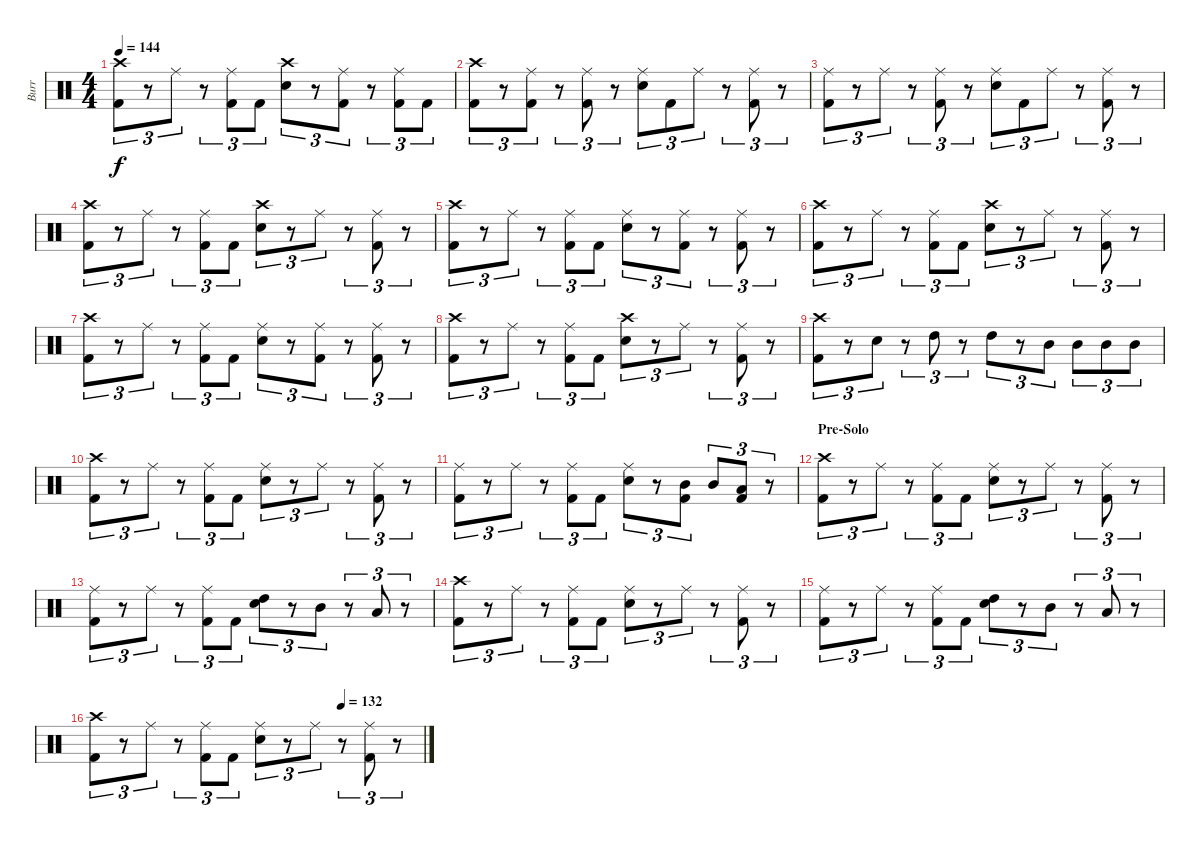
\track ("Burr" "Burr") {instrument percussion}
\staff {score}
\articulation defaults
\ts (4 4)
\tempo 144
\clef neutral
\ks c
("Crash high (hit)" "Kick (hit) 2").8{tu (3 2) dy f} r.8{tu (3 2)} "Ride (middle)".8{tu (3 2)} r.8{tu (3 2)} ("Ride (middle)" "Kick (hit) 2").8{tu (3 2)} "Kick (hit) 2".8{tu (3 2)} ("Crash high (hit)" "Snare (hit) 2").8{tu (3 2)} r.8{tu (3 2)} ("Ride (middle)" "Kick (hit) 2").8{tu (3 2)} r.8{tu (3 2)} ("Ride (middle)" "Kick (hit) 2").8{tu (3 2)} "Kick (hit) 2".8{tu (3 2)} |
("Crash high (hit)" "Kick (hit) 2").8{tu (3 2)} r.8{tu (3 2)} ("Ride (middle)" "Kick (hit) 2").8{tu (3 2)} r.8{tu (3 2)} ("Ride (middle)" "Kick (hit) 2").8{tu (3 2)} r.8{tu (3 2)} ("Ride (middle)" "Snare (hit) 2").8{tu (3 2)} "Kick (hit) 2".8{tu (3 2)} "Ride (middle)".8{tu (3 2)} r.8{tu (3 2)} ("Ride (middle)" "Kick (hit) 2").8{tu (3 2)} r.8{tu (3 2)} |
("Ride (middle)" "Kick (hit) 2").8{tu (3 2)} r.8{tu (3 2)} "Ride (middle)".8{tu (3 2)} r.8{tu (3 2)} ("Ride (middle)" "Kick (hit) 2").8{tu (3 2)} r.8{tu (3 2)} ("Ride (middle)" "Snare (hit) 2").8{tu (3 2)} "Kick (hit) 2".8{tu (3 2)} "Ride (middle)".8{tu (3 2)} r.8{tu (3 2)} ("Ride (middle)" "Kick (hit) 2").8{tu (3 2)} r.8{tu (3 2)} |
("Crash high (hit)" "Kick (hit) 2").8{tu (3 2)} r.8{tu (3 2)} "Ride (middle)".8{tu (3 2)} r.8{tu (3 2)} ("Ride (middle)" "Kick (hit) 2").8{tu (3 2)} "Kick (hit) 2".8{tu (3 2)} ("Crash high (hit)" "Snare (hit) 2").8{tu (3 2)} r.8{tu (3 2)} "Ride (middle)".8{tu (3 2)} r.8{tu (3 2)} ("Ride (middle)" "Kick (hit) 2").8{tu (3 2)} r.8{tu (3 2)} |
("Crash high (hit)" "Kick (hit) 2").8{tu (3 2)} r.8{tu (3 2)} "Ride (middle)".8{tu (3 2)} r.8{tu (3 2)} ("Ride (middle)" "Kick (hit) 2").8{tu (3 2)} "Kick (hit) 2".8{tu (3 2)} ("Ride (middle)" "Snare (hit) 2").8{tu (3 2)} r.8{tu (3 2)} ("Ride (middle)" "Kick (hit) 2").8{tu (3 2)} r.8{tu (3 2)} ("Ride (middle)" "Kick (hit) 2").8{tu (3 2)} r.8{tu (3 2)} |
("Crash high (hit)" "Kick (hit) 2").8{tu (3 2)} r.8{tu (3 2)} "Ride (middle)".8{tu (3 2)} r.8{tu (3 2)} ("Ride (middle)" "Kick (hit) 2").8{tu (3 2)} "Kick (hit) 2".8{tu (3 2)} ("Crash high (hit)" "Snare (hit) 2").8{tu (3 2)} r.8{tu (3 2)} "Ride (middle)".8{tu (3 2)} r.8{tu (3 2)} ("Ride (middle)" "Kick (hit) 2").8{tu (3 2)} r.8{tu (3 2)} |
("Crash high (hit)" "Kick (hit) 2").8{tu (3 2)} r.8{tu (3 2)} "Ride (middle)".8{tu (3 2)} r.8{tu (3 2)} ("Ride (middle)" "Kick (hit) 2").8{tu (3 2)} "Kick (hit) 2".8{tu (3 2)} ("Ride (middle)" "Snare (hit) 2").8{tu (3 2)} r.8{tu (3 2)} ("Ride (middle)" "Kick (hit) 2").8{tu (3 2)} r.8{tu (3 2)} ("Ride (middle)" "Kick (hit) 2").8{tu (3 2)} r.8{tu (3 2)} |
("Crash high (hit)" "Kick (hit) 2").8{tu (3 2)} r.8{tu (3 2)} "Ride (middle)".8{tu (3 2)} r.8{tu (3 2)} ("Ride (middle)" "Kick (hit) 2").8{tu (3 2)} "Kick (hit) 2".8{tu (3 2)} ("Crash high (hit)" "Snare (hit) 2").8{tu (3 2)} r.8{tu (3 2)} "Ride (middle)".8{tu (3 2)} r.8{tu (3 2)} ("Ride (middle)" "Kick (hit) 2").8{tu (3 2)} r.8{tu (3 2)} |
("Crash high (hit)" "Kick (hit) 2").8{tu (3 2)} r.8{tu (3 2)} "Snare (hit) 2".8{tu (3 2)} r.8{tu (3 2)} "High Tom (hit)".8{tu (3 2)} r.8{tu (3 2)} "High Tom (hit)".8{tu (3 2)} r.8{tu (3 2)} "Mid Tom (hit)".8{tu (3 2)} "Mid Tom (hit)".8{tu (3 2)} "Mid Tom (hit)".8{tu (3 2)} "Mid Tom (hit)".8{tu (3 2)} |
("Crash high (hit)" "Kick (hit) 2").8{tu (3 2)} r.8{tu (3 2)} "Ride (middle)".8{tu (3 2)} r.8{tu (3 2)} ("Ride (middle)" "Kick (hit) 2").8{tu (3 2)} "Kick (hit) 2".8{tu (3 2)} ("Ride (middle)" "Snare (hit) 2").8{tu (3 2)} r.8{tu (3 2)} "Ride (middle)".8{tu (3 2)} r.8{tu (3 2)} ("Ride (middle)" "Kick (hit) 2").8{tu (3 2)} r.8{tu (3 2)} |
("Ride (middle)" "Kick (hit) 2").8{tu (3 2)} r.8{tu (3 2)} "Ride (middle)".8{tu (3 2)} r.8{tu (3 2)} ("Ride (middle)" "Kick (hit) 2").8{tu (3 2)} "Kick (hit) 2".8{tu (3 2)} ("Ride (middle)" "Snare (hit) 2").8{tu (3 2)} r.8{tu (3 2)} ("Mid Tom (hit)" "Kick (hit) 2").8{tu (3 2)} "Mid Tom (hit)".8{tu (3 2)} ("Low Tom (hit)" "Kick (hit) 2").8{tu (3 2)} r.8{tu (3 2)} |
\section ("" "Pre-Solo")
("Crash high (hit)" "Kick (hit) 2").8{tu (3 2)} r.8{tu (3 2)} "Ride (middle)".8{tu (3 2)} r.8{tu (3 2)} ("Ride (middle)" "Kick (hit) 2").8{tu (3 2)} "Kick (hit) 2".8{tu (3 2)} ("Ride (middle)" "Snare (hit) 2").8{tu (3 2)} r.8{tu (3 2)} "Ride (middle)".8{tu (3 2)} r.8{tu (3 2)} ("Ride (middle)" "Kick (hit) 2").8{tu (3 2)} r.8{tu (3 2)} |
("Ride (middle)" "Kick (hit) 2").8{tu (3 2)} r.8{tu (3 2)} "Ride (middle)".8{tu (3 2)} r.8{tu (3 2)} ("Ride (middle)" "Kick (hit) 2").8{tu (3 2)} "Kick (hit) 2".8{tu (3 2)} ("High Tom (hit)" "Snare (hit) 2").8{tu (3 2)} r.8{tu (3 2)} "Mid Tom (hit)".8{tu (3 2)} r.8{tu (3 2)} "Low Tom (hit)".8{tu (3 2)} r.8{tu (3 2)} |
("Crash high (hit)" "Kick (hit) 2").8{tu (3 2)} r.8{tu (3 2)} "Ride (middle)".8{tu (3 2)} r.8{tu (3 2)} ("Ride (middle)" "Kick (hit) 2").8{tu (3 2)} "Kick (hit) 2".8{tu (3 2)} ("Ride (middle)" "Snare (hit) 2").8{tu (3 2)} r.8{tu (3 2)} "Ride (middle)".8{tu (3 2)} r.8{tu (3 2)} ("Ride (middle)" "Kick (hit) 2").8{tu (3 2)} r.8{tu (3 2)} |
("Ride (middle)" "Kick (hit) 2").8{tu (3 2)} r.8{tu (3 2)} "Ride (middle)".8{tu (3 2)} r.8{tu (3 2)} ("Ride (middle)" "Kick (hit) 2").8{tu (3 2)} "Kick (hit) 2".8{tu (3 2)} ("High Tom (hit)" "Snare (hit) 2").8{tu (3 2)} r.8{tu (3 2)} "Mid Tom (hit)".8{tu (3 2)} r.8{tu (3 2)} "Low Tom (hit)".8{tu (3 2)} r.8{tu (3 2)} |
\tempo (132 0.75)
("Crash high (hit)" "Kick (hit) 2").8{tu (3 2)} r.8{tu (3 2)} "Ride (middle)".8{tu (3 2)} r.8{tu (3 2)} ("Ride (middle)" "Kick (hit) 2").8{tu (3 2)} "Kick (hit) 2".8{tu (3 2)} ("Ride (middle)" "Snare (hit) 2").8{tu (3 2)} r.8{tu (3 2)} "Ride (middle)".8{tu (3 2)} r.8{tu (3 2)} ("Ride (middle)" "Kick (hit) 2").8{tu (3 2)} r.8{tu (3 2)}
